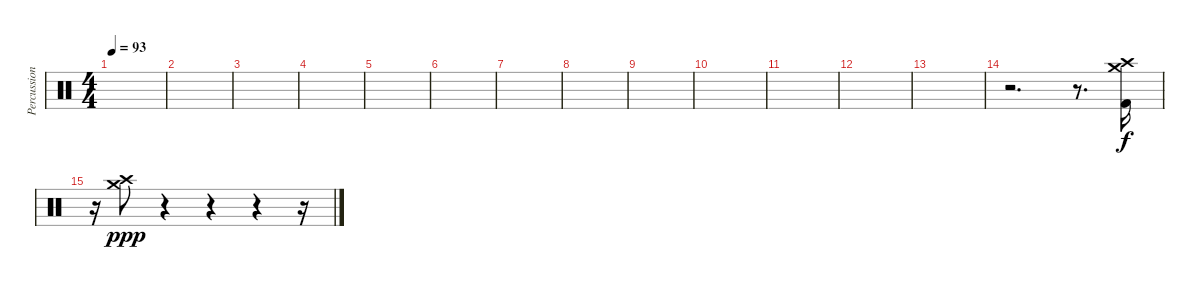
\track ("Percussion" "Percussion") {instrument percussion}
\staff {score}
\articulation defaults
\ts (4 4)
\tempo 93
\clef neutral
\ks c
|
|
|
|
|
|
|
|
|
|
|
|
|
r.2{d} r.8{d} ("Crash medium (hit)" "Crash high (hit)" "Kick (hit) 2").16 |
r.16 ("Crash medium (hit)" "Crash high (hit)").8{dy ppp} r.4 r.4 r.4 r.16
